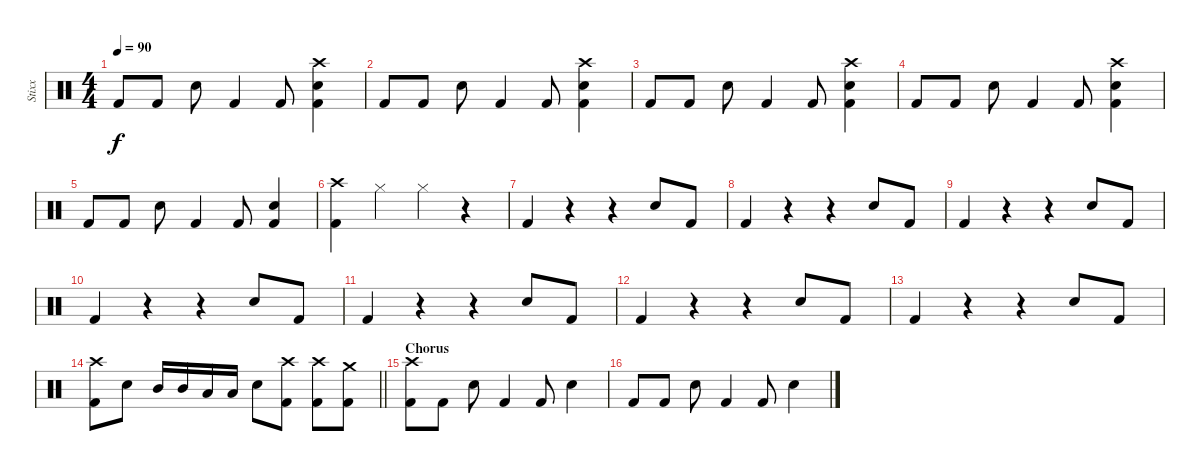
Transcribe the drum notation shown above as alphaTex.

\track ("Stixx" "Stixx") {instrument percussion}
\staff {score}
\articulation defaults
\ts (4 4)
\tempo 90
\clef neutral
\ks c "Kick (hit) 2".8{dy f} "Kick (hit) 2".8 "Electric Snare (hit)".8 "Kick (hit) 2".4 "Kick (hit) 2".8
("Crash high (hit)" "Electric Snare (hit)" "Kick (hit) 2").4 |
"Kick (hit) 2".8 "Kick (hit) 2".8 "Electric Snare (hit)".8 "Kick (hit) 2".4 "Kick (hit) 2".8 ("Crash high (hit)" "Electric Snare (hit)" "Kick (hit) 2").4 |
"Kick (hit) 2".8 "Kick (hit) 2".8 "Electric Snare (hit)".8 "Kick (hit) 2".4 "Kick (hit) 2".8 ("Crash high (hit)" "Electric Snare (hit)" "Kick (hit) 2").4 |
"Kick (hit) 2".8 "Kick (hit) 2".8 "Electric Snare (hit)".8 "Kick (hit) 2".4 "Kick (hit) 2".8 ("Crash high (hit)" "Electric Snare (hit)" "Kick (hit) 2").4 |
"Kick (hit) 2".8 "Kick (hit) 2".8 "Electric Snare (hit)".8 "Kick (hit) 2".4 "Kick (hit) 2".8 ("Electric Snare (hit)" "Kick (hit) 2").4 |
("Crash high (hit)" "Kick (hit) 2").4 "Hi-Hat (closed)".4 "Hi-Hat (closed)".4 r.4 |
"Kick (hit) 2".4 r.4 r.4 "Electric Snare (hit)".8 "Kick (hit) 2".8 |
"Kick (hit) 2".4 r.4 r.4 "Electric Snare (hit)".8 "Kick (hit) 2".8 |
"Kick (hit) 2".4 r.4 r.4 "Electric Snare (hit)".8 "Kick (hit) 2".8 |
"Kick (hit) 2".4 r.4 r.4 "Electric Snare (hit)".8 "Kick (hit) 2".8 |
"Kick (hit) 2".4 r.4 r.4 "Electric Snare (hit)".8 "Kick (hit) 2".8 |
"Kick (hit) 2".4 r.4 r.4 "Electric Snare (hit)".8 "Kick (hit) 2".8 |
"Kick (hit) 2".4 r.4 r.4 "Electric Snare (hit)".8 "Kick (hit) 2".8 |
\barLineRight lightlight
("Crash high (hit)" "Kick (hit) 2").8 "Electric Snare (hit)".8 "Mid Tom (hit)".16 "Mid Tom (hit)".16 "Low Tom (hit)".16 "Low Tom (hit)".16 "Electric Snare (hit)".8 ("Crash high (hit)" "Kick (hit) 2").8 ("Crash high (hit)" "Kick (hit) 2").8 ("Crash medium (hit)" "Kick (hit) 2").8 |
\section ("" "Chorus")
("Crash high (hit)" "Kick (hit) 2").8 "Kick (hit) 2".8 "Electric Snare (hit)".8 "Kick (hit) 2".4 "Kick (hit) 2".8 "Electric Snare (hit)".4 |
"Kick (hit) 2".8 "Kick (hit) 2".8 "Electric Snare (hit)".8 "Kick (hit) 2".4 "Kick (hit) 2".8 "Electric Snare (hit)".4
